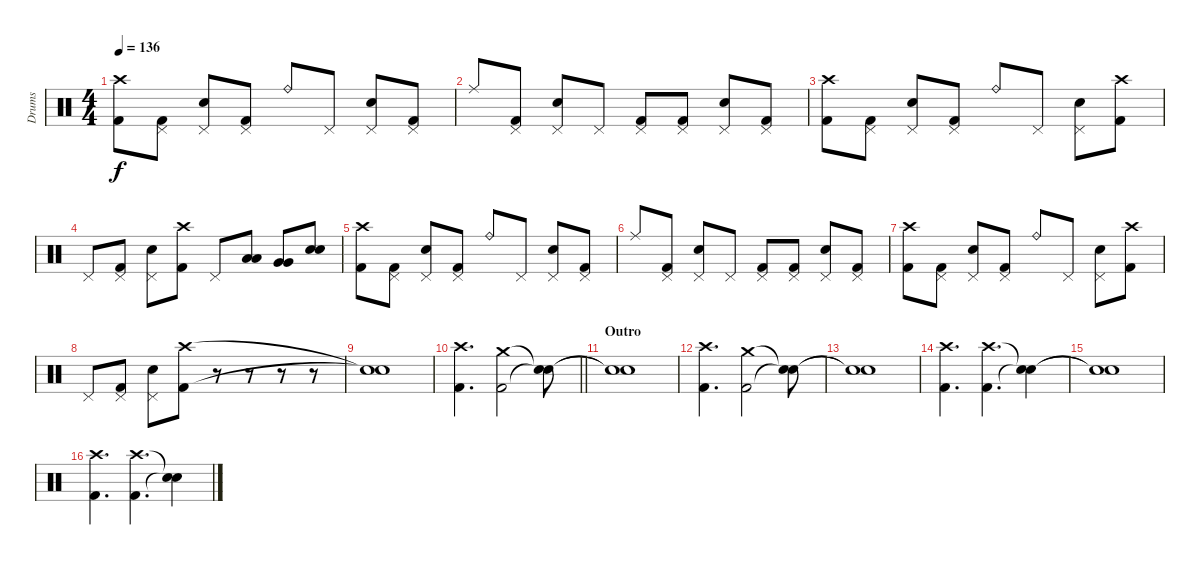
\track ("Drums" "Drums") {instrument percussion}
\staff {score}
\articulation defaults
\ts (4 4)
\tempo 136
\clef neutral
\ks c
("Crash high (hit)" "Kick (hit) 2").8{dy f} ("Pedal Hi-Hat (hit)" "Kick (hit) 2").8 ("Pedal Hi-Hat (hit)" "Electric Snare (hit)").8 ("Pedal Hi-Hat (hit)" "Kick (hit) 2").8 "Ride (bell)".8 "Pedal Hi-Hat (hit)".8 ("Pedal Hi-Hat (hit)" "Electric Snare (hit)").8 ("Pedal Hi-Hat (hit)" "Kick (hit) 2").8 |
"Ride (middle)".8 ("Pedal Hi-Hat (hit)" "Kick (hit) 2").8 ("Pedal Hi-Hat (hit)" "Electric Snare (hit)").8 "Pedal Hi-Hat (hit)".8 ("Pedal Hi-Hat (hit)" "Kick (hit) 2").8 ("Pedal Hi-Hat (hit)" "Kick (hit) 2").8 ("Pedal Hi-Hat (hit)" "Electric Snare (hit)").8 ("Pedal Hi-Hat (hit)" "Kick (hit) 2").8 |
("Crash high (hit)" "Kick (hit) 2").8 ("Pedal Hi-Hat (hit)" "Kick (hit) 2").8 ("Pedal Hi-Hat (hit)" "Electric Snare (hit)").8 ("Pedal Hi-Hat (hit)" "Kick (hit) 2").8 "Ride (bell)".8 "Pedal Hi-Hat (hit)".8 ("Pedal Hi-Hat (hit)" "Electric Snare (hit)").8 ("Crash high (hit)" "Kick (hit) 2").8 |
"Pedal Hi-Hat (hit)".8 ("Pedal Hi-Hat (hit)" "Kick (hit) 2").8 ("Pedal Hi-Hat (hit)" "Electric Snare (hit)").8 ("Crash high (hit)" "Kick (hit) 2").8 "Pedal Hi-Hat (hit)".8 ("Low Tom (hit)" "Low Tom (hit)").8 ("Very Low Tom (hit)" "Very Low Tom (hit)").8 ("Electric Snare (hit)" "Electric Snare (hit)").8 |
("Crash high (hit)" "Kick (hit) 2").8 ("Pedal Hi-Hat (hit)" "Kick (hit) 2").8 ("Pedal Hi-Hat (hit)" "Electric Snare (hit)").8 ("Pedal Hi-Hat (hit)" "Kick (hit) 2").8 "Ride (bell)".8 "Pedal Hi-Hat (hit)".8 ("Pedal Hi-Hat (hit)" "Electric Snare (hit)").8 ("Pedal Hi-Hat (hit)" "Kick (hit) 2").8 |
"Ride (middle)".8 ("Pedal Hi-Hat (hit)" "Kick (hit) 2").8 ("Pedal Hi-Hat (hit)" "Electric Snare (hit)").8 "Pedal Hi-Hat (hit)".8 ("Pedal Hi-Hat (hit)" "Kick (hit) 2").8 ("Pedal Hi-Hat (hit)" "Kick (hit) 2").8 ("Pedal Hi-Hat (hit)" "Electric Snare (hit)").8 ("Pedal Hi-Hat (hit)" "Kick (hit) 2").8 |
("Crash high (hit)" "Kick (hit) 2").8 ("Pedal Hi-Hat (hit)" "Kick (hit) 2").8 ("Pedal Hi-Hat (hit)" "Electric Snare (hit)").8 ("Pedal Hi-Hat (hit)" "Kick (hit) 2").8 "Ride (bell)".8 "Pedal Hi-Hat (hit)".8 ("Pedal Hi-Hat (hit)" "Electric Snare (hit)").8 ("Crash high (hit)" "Kick (hit) 2").8 |
"Pedal Hi-Hat (hit)".8 ("Pedal Hi-Hat (hit)" "Kick (hit) 2").8 ("Pedal Hi-Hat (hit)" "Electric Snare (hit)").8 ("Crash high (hit)" "Kick (hit) 2").8 r.8 r.8 r.8 r.8 |
("Snare (hit)"{t} "Snare (hit)"{t}).1 |
\barLineRight lightlight
("Crash high (hit)" "Kick (hit) 2").4{d} ("Crash medium (hit)" "Kick (hit) 2").2 ("Snare (hit)"{t} "Snare (hit)"{t}).8 |
\section ("" "Outro")
("Snare (hit)"{t} "Snare (hit)"{t}).1 |
("Crash high (hit)" "Kick (hit) 2").4{d} ("Crash medium (hit)" "Kick (hit) 2").2 ("Snare (hit)"{t} "Snare (hit)"{t}).8 |
("Snare (hit)"{t} "Snare (hit)"{t}).1 |
("Crash high (hit)" "Kick (hit) 2").4{d} ("Crash high (hit)" "Kick (hit) 2").4{d} ("Snare (hit)"{t} "Snare (hit)"{t}).4 |
("Snare (hit)"{t} "Snare (hit)"{t}).1 |
("Crash high (hit)" "Kick (hit) 2").4{d} ("Crash high (hit)" "Kick (hit) 2").4{d} ("Snare (hit)"{t} "Snare (hit)"{t}).4
